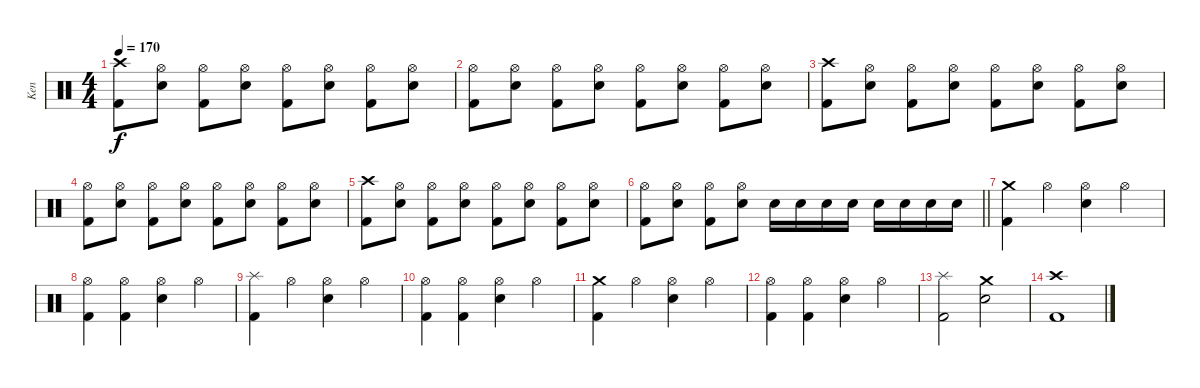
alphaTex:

\track ("Ken" "Ken") {instrument percussion}
\staff {score}
\articulation defaults
\ts (4 4)
\tempo 170
\clef neutral
\ks c
("Crash high (hit)" "Kick (hit) 2").8{dy f} ("Hi-Hat (open)" "Snare (hit) 2").8 ("Hi-Hat (open)" "Kick (hit) 2").8 ("Hi-Hat (open)" "Snare (hit) 2").8 ("Hi-Hat (open)" "Kick (hit) 2").8 ("Hi-Hat (open)" "Snare (hit) 2").8 ("Hi-Hat (open)" "Kick (hit) 2").8 ("Hi-Hat (open)" "Snare (hit) 2").8 |
("Hi-Hat (open)" "Kick (hit) 2").8 ("Hi-Hat (open)" "Snare (hit) 2").8 ("Hi-Hat (open)" "Kick (hit) 2").8 ("Hi-Hat (open)" "Snare (hit) 2").8 ("Hi-Hat (open)" "Kick (hit) 2").8 ("Hi-Hat (open)" "Snare (hit) 2").8 ("Hi-Hat (open)" "Kick (hit) 2").8 ("Hi-Hat (open)" "Snare (hit) 2").8 |
("Crash high (hit)" "Kick (hit) 2").8 ("Hi-Hat (open)" "Snare (hit) 2").8 ("Hi-Hat (open)" "Kick (hit) 2").8 ("Hi-Hat (open)" "Snare (hit) 2").8 ("Hi-Hat (open)" "Kick (hit) 2").8 ("Hi-Hat (open)" "Snare (hit) 2").8 ("Hi-Hat (open)" "Kick (hit) 2").8 ("Hi-Hat (open)" "Snare (hit) 2").8 |
("Hi-Hat (open)" "Kick (hit) 2").8 ("Hi-Hat (open)" "Snare (hit) 2").8 ("Hi-Hat (open)" "Kick (hit) 2").8 ("Hi-Hat (open)" "Snare (hit) 2").8 ("Hi-Hat (open)" "Kick (hit) 2").8 ("Hi-Hat (open)" "Snare (hit) 2").8 ("Hi-Hat (open)" "Kick (hit) 2").8 ("Hi-Hat (open)" "Snare (hit) 2").8 |
("Crash high (hit)" "Kick (hit) 2").8 ("Hi-Hat (open)" "Snare (hit) 2").8 ("Hi-Hat (open)" "Kick (hit) 2").8 ("Hi-Hat (open)" "Snare (hit) 2").8 ("Hi-Hat (open)" "Kick (hit) 2").8 ("Hi-Hat (open)" "Snare (hit) 2").8 ("Hi-Hat (open)" "Kick (hit) 2").8 ("Hi-Hat (open)" "Snare (hit) 2").8 |
\barLineRight lightlight
("Hi-Hat (open)" "Kick (hit) 2").8 ("Hi-Hat (open)" "Snare (hit) 2").8 ("Hi-Hat (open)" "Kick (hit) 2").8 ("Hi-Hat (open)" "Snare (hit) 2").8 "Snare (hit) 2".16 "Snare (hit) 2".16 "Snare (hit) 2".16 "Snare (hit) 2".16 "Snare (hit) 2".16 "Snare (hit) 2".16 "Snare (hit) 2".16 "Snare (hit) 2".16 |
("Crash medium (hit)" "Kick (hit) 2").4 "Hi-Hat (open)".4 ("Hi-Hat (open)" "Snare (hit) 2").4 "Hi-Hat (open)".4 |
("Hi-Hat (open)" "Kick (hit) 2").4 ("Hi-Hat (open)" "Kick (hit) 2").4 ("Hi-Hat (open)" "Snare (hit) 2").4 "Hi-Hat (open)".4 |
("Splash (hit)" "Kick (hit) 2").4 "Hi-Hat (open)".4 ("Hi-Hat (open)" "Snare (hit) 2").4 "Hi-Hat (open)".4 |
("Hi-Hat (open)" "Kick (hit) 2").4 ("Hi-Hat (open)" "Kick (hit) 2").4 ("Hi-Hat (open)" "Snare (hit) 2").4 "Hi-Hat (open)".4 |
("Crash medium (hit)" "Kick (hit) 2").4 "Hi-Hat (open)".4 ("Hi-Hat (open)" "Snare (hit) 2").4 "Hi-Hat (open)".4 |
("Hi-Hat (open)" "Kick (hit) 2").4 ("Hi-Hat (open)" "Kick (hit) 2").4 ("Hi-Hat (open)" "Snare (hit) 2").4 "Hi-Hat (open)".4 |
("Splash (hit)" "Kick (hit) 2").2 ("Crash medium (hit)" "Snare (hit) 2").2 |
("Crash high (hit)" "Kick (hit) 2").1
